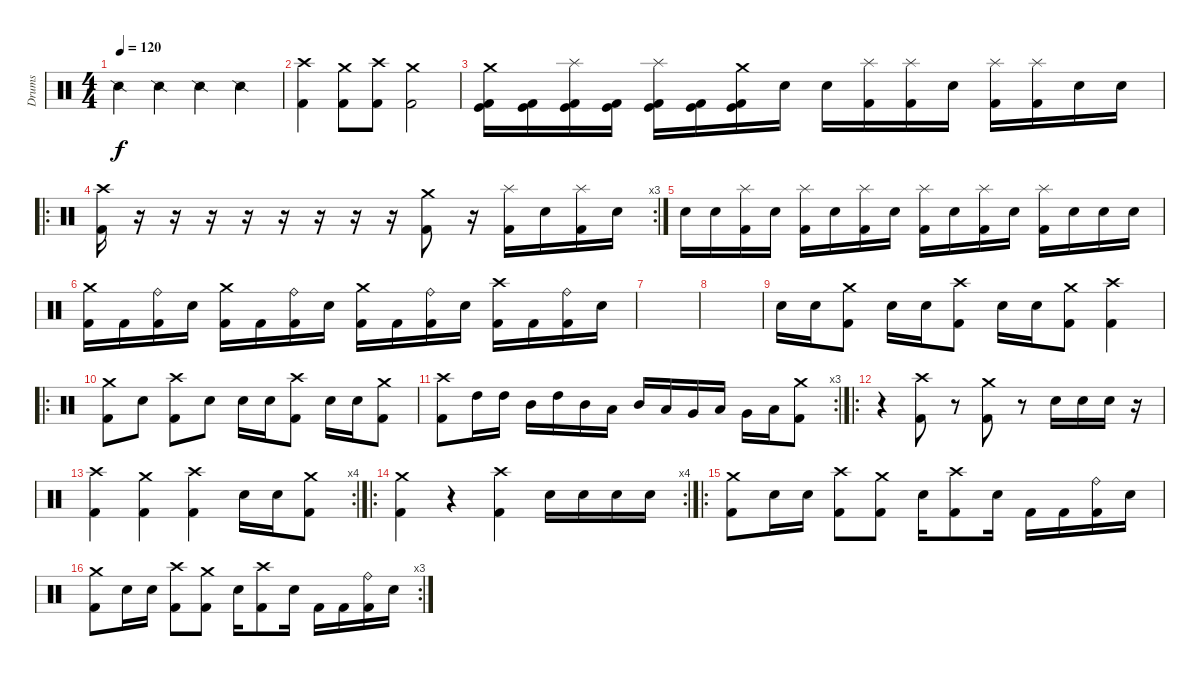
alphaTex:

\track ("Drums" "Drums") {instrument percussion}
\staff {score}
\articulation defaults
\ts (4 4)
\tempo 120
\clef neutral
\ks c "Snare (side stick) 2".4{dy f} "Snare (side stick) 2".4 "Snare (side stick) 2".4 "Snare (side stick) 2".4
|
("Crash high (hit)" "Kick (hit) 2").4 ("Crash medium (hit)" "Kick (hit) 2").8 ("Crash high (hit)" "Kick (hit) 2").8 ("Crash medium (hit)" "Kick (hit) 2").2 |
("Crash medium (hit)" "Kick (hit) 2" "Kick (hit)").16 ("Kick (hit) 2" "Kick (hit)").16 ("Splash (hit)" "Kick (hit) 2" "Kick (hit)").16 ("Kick (hit) 2" "Kick (hit)").16 ("Splash (hit)" "Kick (hit) 2" "Kick (hit)").16 ("Kick (hit) 2" "Kick (hit)").16 ("Crash medium (hit)" "Kick (hit) 2" "Kick (hit)").16 "Electric Snare (hit)".16 "Electric Snare (hit)".16 ("Splash (hit)" "Kick (hit) 2").16 ("Splash (hit)" "Kick (hit) 2").16 "Electric Snare (hit)".16 ("Splash (hit)" "Kick (hit) 2").16 ("Splash (hit)" "Kick (hit) 2").16 "Electric Snare (hit)".16 "Electric Snare (hit)".16 |
\ro
\rc 3
("Crash high (hit)" "Kick (hit) 2").16 r.16 r.16 r.16 r.16 r.16 r.16 r.16 r.16 ("Crash medium (hit)" "Kick (hit) 2").8 r.16 ("Splash (hit)" "Kick (hit) 2").16 "Electric Snare (hit)".16 ("Splash (hit)" "Kick (hit) 2").16 "Electric Snare (hit)".16 |
"Electric Snare (hit)".16 "Electric Snare (hit)".16 ("Splash (hit)" "Kick (hit) 2").16 "Electric Snare (hit)".16 ("Splash (hit)" "Kick (hit) 2").16 "Electric Snare (hit)".16 ("Splash (hit)" "Kick (hit) 2").16 "Electric Snare (hit)".16 ("Splash (hit)" "Kick (hit) 2").16 "Electric Snare (hit)".16 ("Splash (hit)" "Kick (hit) 2").16 "Electric Snare (hit)".16 ("Splash (hit)" "Kick (hit) 2").16 "Electric Snare (hit)".16 "Electric Snare (hit)".16 "Electric Snare (hit)".16 |
("Crash medium (hit)" "Kick (hit) 2").16 "Kick (hit) 2".16 ("Ride (bell)" "Kick (hit) 2").16 "Electric Snare (hit)".16 ("Crash medium (hit)" "Kick (hit) 2").16 "Kick (hit) 2".16 ("Ride (bell)" "Kick (hit) 2").16 "Electric Snare (hit)".16 ("Crash medium (hit)" "Kick (hit) 2").16 "Kick (hit) 2".16 ("Ride (bell)" "Kick (hit) 2").16 "Electric Snare (hit)".16 ("Crash high (hit)" "Kick (hit) 2").16 "Kick (hit) 2".16 ("Ride (bell)" "Kick (hit) 2").16 "Electric Snare (hit)".16 |
|
|
"Electric Snare (hit)".16 "Electric Snare (hit)".16 ("Crash medium (hit)" "Kick (hit) 2").8 "Electric Snare (hit)".16 "Electric Snare (hit)".16 ("Crash high (hit)" "Kick (hit) 2").8 "Electric Snare (hit)".16 "Electric Snare (hit)".16 ("Crash medium (hit)" "Kick (hit) 2").8 ("Crash high (hit)" "Kick (hit) 2").4 |
\ro
("Crash medium (hit)" "Kick (hit) 2").8 "Electric Snare (hit)".8 ("Crash high (hit)" "Kick (hit) 2").8 "Electric Snare (hit)".8 "Electric Snare (hit)".16 "Electric Snare (hit)".16 ("Crash high (hit)" "Kick (hit) 2").8 "Electric Snare (hit)".16 "Electric Snare (hit)".16 ("Crash medium (hit)" "Kick (hit) 2").8 |
\rc 3
("Crash high (hit)" "Kick (hit) 2").8 "High Tom (hit)".16 "High Tom (hit)".16 "Mid Tom (hit)".16 "High Tom (hit)".16 "Mid Tom (hit)".16 "Low Tom (hit)".16 "Mid Tom (hit)".16 "Low Tom (hit)".16 "Very Low Tom (hit)".16 "Low Tom (hit)".16 "Very Low Tom (hit)".16 "Low Floor Tom (hit)".16 ("Crash medium (hit)" "Kick (hit) 2").8 |
\ro
r.4 ("Crash high (hit)" "Kick (hit) 2").8 r.8 ("Crash medium (hit)" "Kick (hit) 2").8 r.8 "Electric Snare (hit)".16 "Electric Snare (hit)".16 "Electric Snare (hit)".16 r.16 |
\rc 4
("Crash high (hit)" "Kick (hit) 2").4 ("Crash medium (hit)" "Kick (hit) 2").4 ("Crash high (hit)" "Kick (hit) 2").4 "Electric Snare (hit)".16 "Electric Snare (hit)".16 ("Crash medium (hit)" "Kick (hit) 2").8 |
\ro
\rc 4
("Crash medium (hit)" "Kick (hit) 2").4 r.4 ("Crash high (hit)" "Kick (hit) 2").4 "Electric Snare (hit)".16 "Electric Snare (hit)".16 "Electric Snare (hit)".16 "Electric Snare (hit)".16 |
\ro
("Crash medium (hit)" "Kick (hit) 2").8 "Electric Snare (hit)".16 "Electric Snare (hit)".16 ("Crash high (hit)" "Kick (hit) 2").8 ("Crash medium (hit)" "Kick (hit) 2").8 "Electric Snare (hit)".16 ("Crash high (hit)" "Kick (hit) 2").8 "Electric Snare (hit)".16 "Kick (hit) 2".16 "Kick (hit) 2".16 ("Ride (bell)" "Kick (hit) 2").16 "Electric Snare (hit)".16 |
\rc 3
("Crash medium (hit)" "Kick (hit) 2").8 "Electric Snare (hit)".16 "Electric Snare (hit)".16 ("Crash high (hit)" "Kick (hit) 2").8 ("Crash medium (hit)" "Kick (hit) 2").8 "Electric Snare (hit)".16 ("Crash high (hit)" "Kick (hit) 2").8 "Electric Snare (hit)".16 "Kick (hit) 2".16 "Kick (hit) 2".16 ("Ride (bell)" "Kick (hit) 2").16 "Electric Snare (hit)".16
